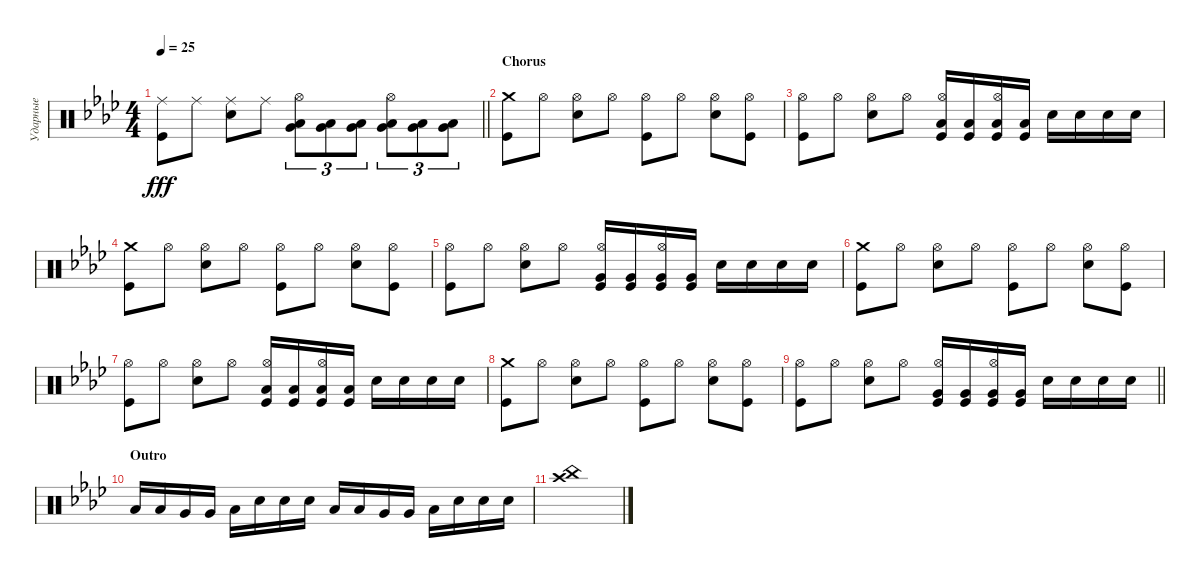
\track ("Ударные" "Ударные") {instrument percussion}
\staff {score}
\articulation defaults
\ts (4 4)
\tempo 25
\clef neutral
\barLineRight lightlight
\ks fminor
("Ride (middle)" "Kick (hit)").8{dy fff} "Ride (middle)".8 ("Ride (middle)" "Snare (hit) 2").8 "Ride (middle)".8 ("Hi-Hat (open)" "Low Tom (hit)" "Very Low Tom (hit)").8{tu (3 2)} ("Low Tom (hit)" "Very Low Tom (hit)").8{tu (3 2)} ("Low Tom (hit)" "Very Low Tom (hit)").8{tu (3 2)} ("Hi-Hat (open)" "Very Low Tom (hit)" "Low Floor Tom (hit)").8{tu (3 2)} ("Very Low Tom (hit)" "Low Floor Tom (hit)").8{tu (3 2)} ("Very Low Tom (hit)" "Low Floor Tom (hit)").8{tu (3 2)} |
\section ("" "Chorus")
("Crash medium (hit)" "Kick (hit)").8 "Hi-Hat (open)".8 ("Hi-Hat (open)" "Snare (hit) 2").8 "Hi-Hat (open)".8 ("Hi-Hat (open)" "Kick (hit)").8 "Hi-Hat (open)".8 ("Hi-Hat (open)" "Snare (hit) 2").8 ("Kick (hit)" "Hi-Hat (open)").8 |
("Hi-Hat (open)" "Kick (hit)").8 "Hi-Hat (open)".8 ("Hi-Hat (open)" "Snare (hit) 2").8 "Hi-Hat (open)".8 ("Hi-Hat (open)" "Low Tom (hit)" "Kick (hit)").16 ("Low Tom (hit)" "Kick (hit)").16 ("Hi-Hat (open)" "Low Tom (hit)" "Kick (hit)").16 ("Low Tom (hit)" "Kick (hit)").16 "Snare (hit) 2".16 "Snare (hit) 2".16 "Snare (hit) 2".16 "Snare (hit) 2".16 |
("Crash medium (hit)" "Kick (hit)").8 "Hi-Hat (open)".8 ("Hi-Hat (open)" "Snare (hit) 2").8 "Hi-Hat (open)".8 ("Hi-Hat (open)" "Kick (hit)").8 "Hi-Hat (open)".8 ("Hi-Hat (open)" "Snare (hit) 2").8 ("Kick (hit)" "Hi-Hat (open)").8 |
("Hi-Hat (open)" "Kick (hit)").8 "Hi-Hat (open)".8 ("Hi-Hat (open)" "Snare (hit) 2").8 "Hi-Hat (open)".8 ("Hi-Hat (open)" "Very Low Tom (hit)" "Kick (hit)").16 ("Very Low Tom (hit)" "Kick (hit)").16 ("Hi-Hat (open)" "Very Low Tom (hit)" "Kick (hit)").16 ("Very Low Tom (hit)" "Kick (hit)").16 "Snare (hit) 2".16 "Snare (hit) 2".16 "Snare (hit) 2".16 "Snare (hit) 2".16 |
("Crash medium (hit)" "Kick (hit)").8 "Hi-Hat (open)".8 ("Hi-Hat (open)" "Snare (hit) 2").8 "Hi-Hat (open)".8 ("Hi-Hat (open)" "Kick (hit)").8 "Hi-Hat (open)".8 ("Hi-Hat (open)" "Snare (hit) 2").8 ("Kick (hit)" "Hi-Hat (open)").8 |
("Hi-Hat (open)" "Kick (hit)").8 "Hi-Hat (open)".8 ("Hi-Hat (open)" "Snare (hit) 2").8 "Hi-Hat (open)".8 ("Hi-Hat (open)" "Low Tom (hit)" "Kick (hit)").16 ("Low Tom (hit)" "Kick (hit)").16 ("Hi-Hat (open)" "Low Tom (hit)" "Kick (hit)").16 ("Low Tom (hit)" "Kick (hit)").16 "Snare (hit) 2".16 "Snare (hit) 2".16 "Snare (hit) 2".16 "Snare (hit) 2".16 |
("Crash medium (hit)" "Kick (hit)").8 "Hi-Hat (open)".8 ("Hi-Hat (open)" "Snare (hit) 2").8 "Hi-Hat (open)".8 ("Hi-Hat (open)" "Kick (hit)").8 "Hi-Hat (open)".8 ("Hi-Hat (open)" "Snare (hit) 2").8 ("Kick (hit)" "Hi-Hat (open)").8 |
\barLineRight lightlight
("Hi-Hat (open)" "Kick (hit)").8 "Hi-Hat (open)".8 ("Hi-Hat (open)" "Snare (hit) 2").8 "Hi-Hat (open)".8 ("Hi-Hat (open)" "Very Low Tom (hit)" "Kick (hit)").16 ("Very Low Tom (hit)" "Kick (hit)").16 ("Hi-Hat (open)" "Very Low Tom (hit)" "Kick (hit)").16 ("Very Low Tom (hit)" "Kick (hit)").16 "Snare (hit) 2".16 "Snare (hit) 2".16 "Snare (hit) 2".16 "Snare (hit) 2".16 |
\section ("" "Outro")
"Low Tom (hit)".16 "Low Tom (hit)".16 "Very Low Tom (hit)".16 "Very Low Tom (hit)".16 "Low Floor Tom (hit)".16 "Snare (hit) 2".16 "Snare (hit) 2".16 "Snare (hit) 2".16 "Low Tom (hit)".16 "Low Tom (hit)".16 "Very Low Tom (hit)".16 "Very Low Tom (hit)".16 "Low Floor Tom (hit)".16 "Snare (hit) 2".16 "Snare (hit) 2".16 "Snare (hit) 2".16 |
("Crash high (hit)" "China (hit)").1
